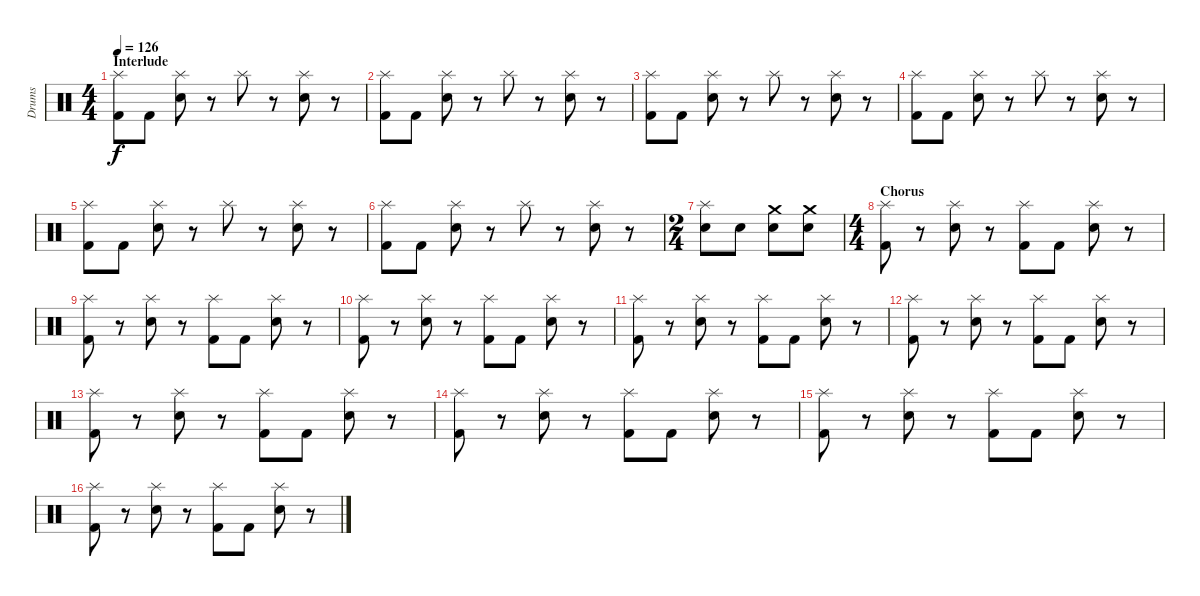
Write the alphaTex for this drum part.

\track ("Drums" "Drums") {instrument percussion}
\staff {score}
\articulation defaults
\ts (4 4)
\section ("" "Interlude")
\tempo 126
\clef neutral
\ks c
("Splash (hit)" "Kick (hit) 2").8{dy f} "Kick (hit) 2".8 ("Splash (hit)" "Snare (hit) 2").8 r.8 "Splash (hit)".8 r.8 ("Splash (hit)" "Snare (hit) 2").8 r.8 |
("Splash (hit)" "Kick (hit) 2").8 "Kick (hit) 2".8 ("Splash (hit)" "Snare (hit) 2").8 r.8 "Splash (hit)".8 r.8 ("Splash (hit)" "Snare (hit) 2").8 r.8 |
("Splash (hit)" "Kick (hit) 2").8 "Kick (hit) 2".8 ("Splash (hit)" "Snare (hit) 2").8 r.8 "Splash (hit)".8 r.8 ("Splash (hit)" "Snare (hit) 2").8 r.8 |
("Splash (hit)" "Kick (hit) 2").8 "Kick (hit) 2".8 ("Splash (hit)" "Snare (hit) 2").8 r.8 "Splash (hit)".8 r.8 ("Splash (hit)" "Snare (hit) 2").8 r.8 |
("Splash (hit)" "Kick (hit) 2").8 "Kick (hit) 2".8 ("Splash (hit)" "Snare (hit) 2").8 r.8 "Splash (hit)".8 r.8 ("Splash (hit)" "Snare (hit) 2").8 r.8 |
("Splash (hit)" "Kick (hit) 2").8 "Kick (hit) 2".8 ("Splash (hit)" "Snare (hit) 2").8 r.8 "Splash (hit)".8 r.8 ("Splash (hit)" "Snare (hit) 2").8 r.8 |
\ts (2 4)
("Splash (hit)" "Snare (hit) 2").8 "Snare (hit) 2".8 ("Crash medium (hit)" "Snare (hit) 2").8 ("Crash medium (hit)" "Snare (hit) 2").8 |
\ts (4 4)
\section ("" "Chorus")
("Splash (hit)" "Kick (hit) 2").8 r.8 ("Splash (hit)" "Snare (hit) 2").8 r.8 ("Splash (hit)" "Kick (hit) 2").8 "Kick (hit) 2".8 ("Splash (hit)" "Snare (hit) 2").8 r.8 |
("Splash (hit)" "Kick (hit) 2").8 r.8 ("Splash (hit)" "Snare (hit) 2").8 r.8 ("Splash (hit)" "Kick (hit) 2").8 "Kick (hit) 2".8 ("Splash (hit)" "Snare (hit) 2").8 r.8 |
("Splash (hit)" "Kick (hit) 2").8 r.8 ("Splash (hit)" "Snare (hit) 2").8 r.8 ("Splash (hit)" "Kick (hit) 2").8 "Kick (hit) 2".8 ("Splash (hit)" "Snare (hit) 2").8 r.8 |
("Splash (hit)" "Kick (hit) 2").8 r.8 ("Splash (hit)" "Snare (hit) 2").8 r.8 ("Splash (hit)" "Kick (hit) 2").8 "Kick (hit) 2".8 ("Splash (hit)" "Snare (hit) 2").8 r.8 |
("Splash (hit)" "Kick (hit) 2").8 r.8 ("Splash (hit)" "Snare (hit) 2").8 r.8 ("Splash (hit)" "Kick (hit) 2").8 "Kick (hit) 2".8 ("Splash (hit)" "Snare (hit) 2").8 r.8 |
("Splash (hit)" "Kick (hit) 2").8 r.8 ("Splash (hit)" "Snare (hit) 2").8 r.8 ("Splash (hit)" "Kick (hit) 2").8 "Kick (hit) 2".8 ("Splash (hit)" "Snare (hit) 2").8 r.8 |
("Splash (hit)" "Kick (hit) 2").8 r.8 ("Splash (hit)" "Snare (hit) 2").8 r.8 ("Splash (hit)" "Kick (hit) 2").8 "Kick (hit) 2".8 ("Splash (hit)" "Snare (hit) 2").8 r.8 |
("Splash (hit)" "Kick (hit) 2").8 r.8 ("Splash (hit)" "Snare (hit) 2").8 r.8 ("Splash (hit)" "Kick (hit) 2").8 "Kick (hit) 2".8 ("Splash (hit)" "Snare (hit) 2").8 r.8 |
("Splash (hit)" "Kick (hit) 2").8 r.8 ("Splash (hit)" "Snare (hit) 2").8 r.8 ("Splash (hit)" "Kick (hit) 2").8 "Kick (hit) 2".8 ("Splash (hit)" "Snare (hit) 2").8 r.8
